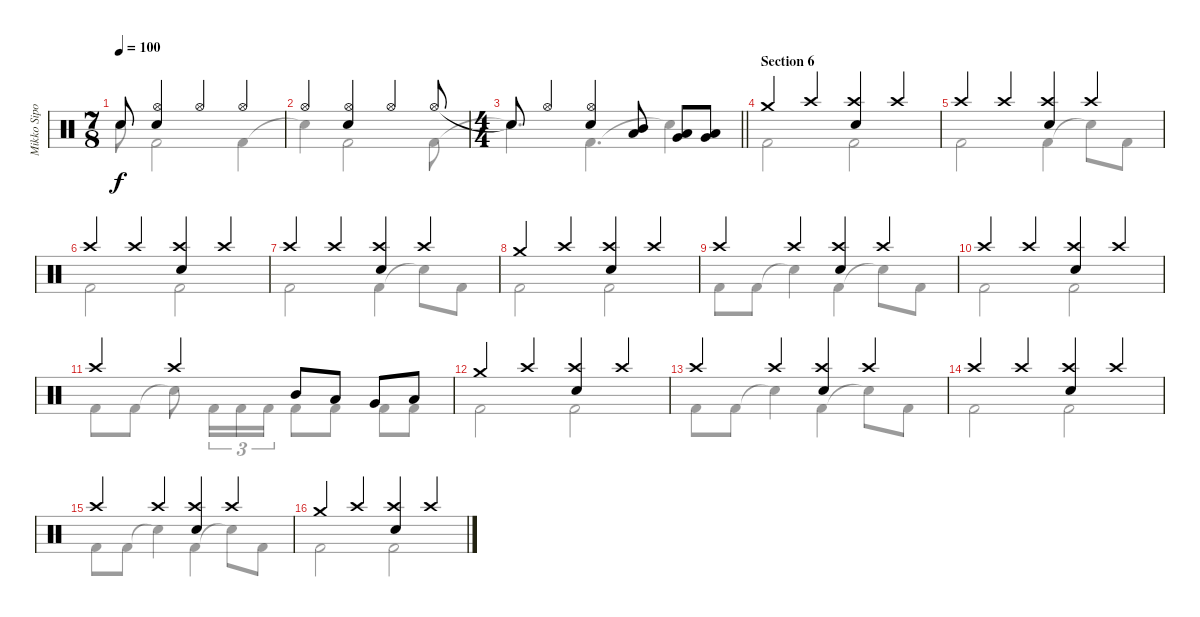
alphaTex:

\track ("Mikko Sipola (drums)" "Mikko Sipo") {instrument percussion}
\staff {score}
\articulation defaults
\voice
\ts (7 8)
\tempo 100
\clef neutral
\ks aminor "Snare (hit)"{t}.8{dy f}
("Hi-Hat (open)" "Snare (hit) 2").4 "Hi-Hat (open)".4 "Hi-Hat (open)".4 |
"Hi-Hat (open)".4 ("Hi-Hat (open)" "Snare (hit) 2").4 "Hi-Hat (open)".4 "Hi-Hat (open)".8 |
\ts (4 4)
\barLineRight lightlight "Snare (hit)"{t}.8 "Hi-Hat (open)".4
("Hi-Hat (open)" "Snare (hit) 2").4 ("Mid Tom (hit)" "Low Tom (hit)").8 ("Low Tom (hit)" "Very Low Tom (hit)").8 ("Very Low Tom (hit)" "Low Floor Tom (hit)").8 |
\section ("" "Section 6")
"Crash medium (hit)".4 "Crash high (hit)".4 ("Crash high (hit)" "Snare (hit) 2").4 "Crash high (hit)".4 |
"Crash high (hit)".4 "Crash high (hit)".4 ("Crash high (hit)" "Snare (hit) 2").4 "Crash high (hit)".4 |
"Crash high (hit)".4 "Crash high (hit)".4 ("Crash high (hit)" "Snare (hit) 2").4 "Crash high (hit)".4 |
"Crash high (hit)".4 "Crash high (hit)".4 ("Crash high (hit)" "Snare (hit) 2").4 "Crash high (hit)".4 |
"Crash medium (hit)".4 "Crash high (hit)".4 ("Crash high (hit)" "Snare (hit) 2").4 "Crash high (hit)".4 |
"Crash high (hit)".4 "Crash high (hit)".4 ("Crash high (hit)" "Snare (hit) 2").4 "Crash high (hit)".4 |
"Crash high (hit)".4 "Crash high (hit)".4 ("Crash high (hit)" "Snare (hit) 2").4 "Crash high (hit)".4 |
"Crash high (hit)".4 "Crash high (hit)".4 "Mid Tom (hit)".8 "Low Tom (hit)".8 "Very Low Tom (hit)".8 "Low Floor Tom (hit)".8 |
"Crash medium (hit)".4 "Crash high (hit)".4 ("Crash high (hit)" "Snare (hit) 2").4 "Crash high (hit)".4 |
"Crash high (hit)".4 "Crash high (hit)".4 ("Crash high (hit)" "Snare (hit) 2").4 "Crash high (hit)".4 |
"Crash high (hit)".4 "Crash high (hit)".4 ("Crash high (hit)" "Snare (hit) 2").4 "Crash high (hit)".4 |
"Crash high (hit)".4 "Crash high (hit)".4 ("Crash high (hit)" "Snare (hit) 2").4 "Crash high (hit)".4 |
"Crash medium (hit)".4 "Crash high (hit)".4 ("Crash high (hit)" "Snare (hit) 2").4 "Crash high (hit)".4
\voice
\clef neutral
\ottava regular
\simile none
\ks aminor "Snare (hit)"{t}.8{dy f} "Kick (hit) 2".2 "Kick (hit) 2".4
|
"Snare (hit)"{t}.4 "Kick (hit) 2".2 "Kick (hit) 2".8 |
\barLineRight lightlight "Snare (hit)"{t}.4{d} "Kick (hit) 2".4{d} "Snare (hit)"{t}.4
|
"Kick (hit) 2".2 "Kick (hit) 2".2 |
"Kick (hit) 2".2 "Kick (hit) 2".4 "Snare (hit)"{t}.8 "Kick (hit) 2".8 |
"Kick (hit) 2".2 "Kick (hit) 2".2 |
"Kick (hit) 2".2 "Kick (hit) 2".4 "Snare (hit)"{t}.8 "Kick (hit) 2".8 |
"Kick (hit) 2".2 "Kick (hit) 2".2 |
"Kick (hit) 2".8 "Kick (hit) 2".8 "Snare (hit)"{t}.4 "Kick (hit) 2".4 "Snare (hit)"{t}.8 "Kick (hit) 2".8 |
"Kick (hit) 2".2 "Kick (hit) 2".2 |
"Kick (hit) 2".8 "Kick (hit) 2".8 "Snare (hit)"{t}.8 "Kick (hit) 2".16{tu (3 2)} "Kick (hit) 2".16{tu (3 2)} "Kick (hit) 2".16{tu (3 2)} "Kick (hit) 2".8 "Kick (hit) 2".8 "Kick (hit) 2".8 "Kick (hit) 2".8 |
"Kick (hit) 2".2 "Kick (hit) 2".2 |
"Kick (hit) 2".8 "Kick (hit) 2".8 "Snare (hit)"{t}.4 "Kick (hit) 2".4 "Snare (hit)"{t}.8 "Kick (hit) 2".8 |
"Kick (hit) 2".2 "Kick (hit) 2".2 |
"Kick (hit) 2".8 "Kick (hit) 2".8 "Snare (hit)"{t}.4 "Kick (hit) 2".4 "Snare (hit)"{t}.8 "Kick (hit) 2".8 |
"Kick (hit) 2".2 "Kick (hit) 2".2
